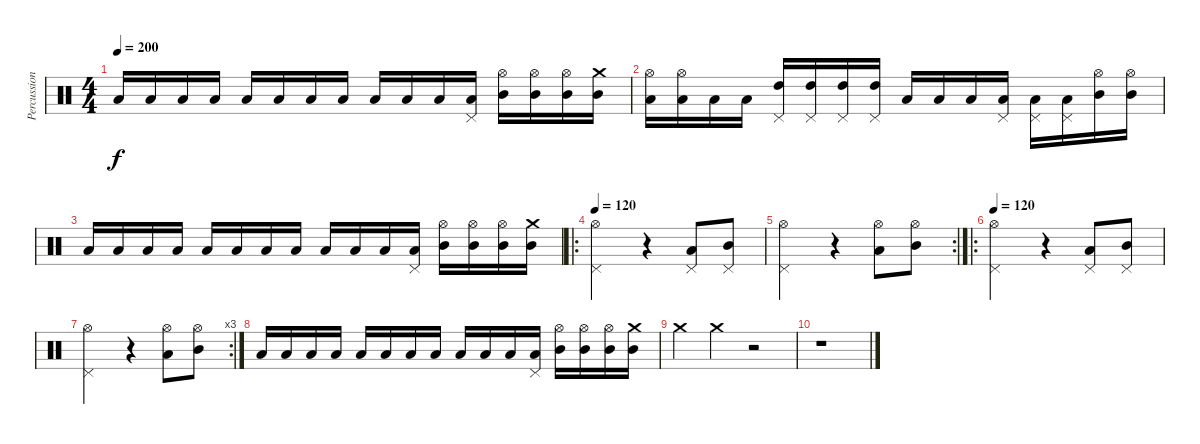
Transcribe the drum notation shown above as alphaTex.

\track ("Percussions" "Percussion") {instrument percussion}
\staff {score}
\articulation defaults
\ts (4 4)
\tempo 200
\clef neutral
\ks c "Low Tom (hit)".16{dy f} "Low Tom (hit)".16 "Low Tom (hit)".16 "Low Tom (hit)".16 "Low Tom (hit)".16 "Low Tom (hit)".16 "Low Tom (hit)".16 "Low Tom (hit)".16 "Low Tom (hit)".16 "Low Tom (hit)".16 "Low Tom (hit)".16
("Low Tom (hit)" "Pedal Hi-Hat (hit)").16 ("Mid Tom (hit)" "Hi-Hat (open)").16 ("Mid Tom (hit)" "Hi-Hat (open)").16 ("Mid Tom (hit)" "Hi-Hat (open)").16 ("Mid Tom (hit)" "Crash medium (hit)").16 |
("Low Tom (hit)" "Hi-Hat (open)").16 ("Low Tom (hit)" "Hi-Hat (open)").16 "Low Tom (hit)".16 "Low Tom (hit)".16 ("High Tom (hit)" "Pedal Hi-Hat (hit)").16 ("High Tom (hit)" "Pedal Hi-Hat (hit)").16 ("High Tom (hit)" "Pedal Hi-Hat (hit)").16 ("High Tom (hit)" "Pedal Hi-Hat (hit)").16 "Low Tom (hit)".16 "Low Tom (hit)".16 "Low Tom (hit)".16 ("Low Tom (hit)" "Pedal Hi-Hat (hit)").16 ("Low Tom (hit)" "Pedal Hi-Hat (hit)").16 ("Low Tom (hit)" "Pedal Hi-Hat (hit)").16 ("Mid Tom (hit)" "Hi-Hat (open)").16 ("Mid Tom (hit)" "Hi-Hat (open)").16 |
"Low Tom (hit)".16 "Low Tom (hit)".16 "Low Tom (hit)".16 "Low Tom (hit)".16 "Low Tom (hit)".16 "Low Tom (hit)".16 "Low Tom (hit)".16 "Low Tom (hit)".16 "Low Tom (hit)".16 "Low Tom (hit)".16 "Low Tom (hit)".16 ("Low Tom (hit)" "Pedal Hi-Hat (hit)").16 ("Mid Tom (hit)" "Hi-Hat (open)").16 ("Mid Tom (hit)" "Hi-Hat (open)").16 ("Mid Tom (hit)" "Hi-Hat (open)").16 ("Mid Tom (hit)" "Crash medium (hit)").16 |
\ro
\tempo 120
("Pedal Hi-Hat (hit)" "Hi-Hat (open)").2 r.4 ("Low Tom (hit)" "Pedal Hi-Hat (hit)").8 ("Mid Tom (hit)" "Pedal Hi-Hat (hit)").8 |
\rc 2
("Pedal Hi-Hat (hit)" "Hi-Hat (open)").2 r.4 ("Low Tom (hit)" "Hi-Hat (open)").8 ("Mid Tom (hit)" "Hi-Hat (open)").8 |
\ro
\tempo 120
("Pedal Hi-Hat (hit)" "Hi-Hat (open)").2 r.4 ("Low Tom (hit)" "Pedal Hi-Hat (hit)").8 ("Mid Tom (hit)" "Pedal Hi-Hat (hit)").8 |
\rc 3
("Pedal Hi-Hat (hit)" "Hi-Hat (open)").2 r.4 ("Low Tom (hit)" "Hi-Hat (open)").8 ("Mid Tom (hit)" "Hi-Hat (open)").8 |
"Low Tom (hit)".16 "Low Tom (hit)".16 "Low Tom (hit)".16 "Low Tom (hit)".16 "Low Tom (hit)".16 "Low Tom (hit)".16 "Low Tom (hit)".16 "Low Tom (hit)".16 "Low Tom (hit)".16 "Low Tom (hit)".16 "Low Tom (hit)".16 ("Low Tom (hit)" "Pedal Hi-Hat (hit)").16 ("Mid Tom (hit)" "Hi-Hat (open)").16 ("Mid Tom (hit)" "Hi-Hat (open)").16 ("Mid Tom (hit)" "Hi-Hat (open)").16 ("Mid Tom (hit)" "Crash medium (hit)").16 |
"Crash medium (hit)".4 "Crash medium (hit)".4 r.2 |
r.1
